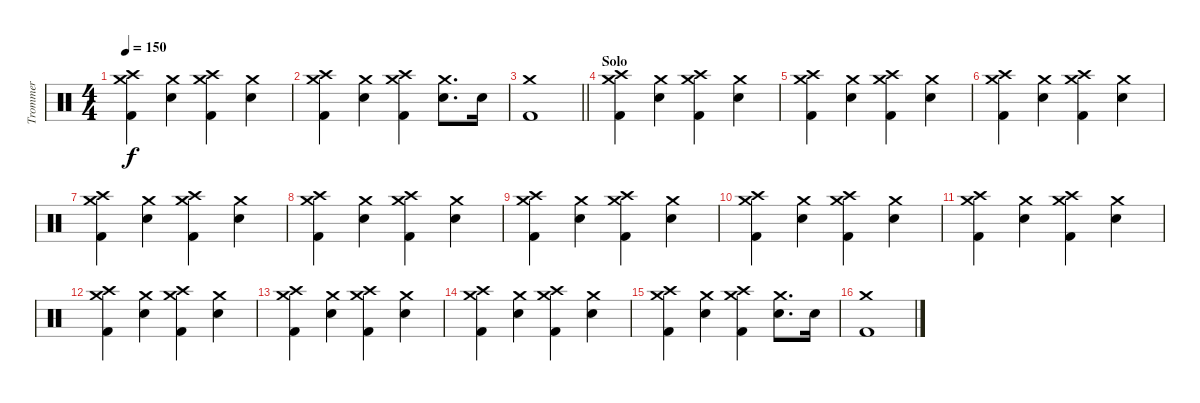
\track ("Trommer" "Trommer") {instrument percussion}
\staff {score}
\articulation defaults
\ts (4 4)
\tempo 150
\clef neutral
\ks c
("Crash medium (hit)" "Crash high (hit)" "Kick (hit) 2").4{dy f} ("Crash medium (hit)" "Snare (hit) 2").4 ("Crash medium (hit)" "Crash high (hit)" "Kick (hit) 2").4 ("Crash medium (hit)" "Snare (hit) 2").4 |
("Crash medium (hit)" "Crash high (hit)" "Kick (hit) 2").4 ("Crash medium (hit)" "Snare (hit) 2").4 ("Crash medium (hit)" "Crash high (hit)" "Kick (hit) 2").4 ("Crash medium (hit)" "Snare (hit) 2").8{d} "Snare (hit) 2".16 |
\barLineRight lightlight
("Crash medium (hit)" "Kick (hit) 2").1 |
\section ("" "Solo")
("Crash medium (hit)" "Crash high (hit)" "Kick (hit) 2").4 ("Crash medium (hit)" "Snare (hit) 2").4 ("Crash medium (hit)" "Crash high (hit)" "Kick (hit) 2").4 ("Crash medium (hit)" "Snare (hit) 2").4 |
("Crash medium (hit)" "Crash high (hit)" "Kick (hit) 2").4 ("Crash medium (hit)" "Snare (hit) 2").4 ("Crash medium (hit)" "Crash high (hit)" "Kick (hit) 2").4 ("Crash medium (hit)" "Snare (hit) 2").4 |
("Crash medium (hit)" "Crash high (hit)" "Kick (hit) 2").4 ("Crash medium (hit)" "Snare (hit) 2").4 ("Crash medium (hit)" "Crash high (hit)" "Kick (hit) 2").4 ("Crash medium (hit)" "Snare (hit) 2").4 |
("Crash medium (hit)" "Crash high (hit)" "Kick (hit) 2").4 ("Crash medium (hit)" "Snare (hit) 2").4 ("Crash medium (hit)" "Crash high (hit)" "Kick (hit) 2").4 ("Crash medium (hit)" "Snare (hit) 2").4 |
("Crash medium (hit)" "Crash high (hit)" "Kick (hit) 2").4 ("Crash medium (hit)" "Snare (hit) 2").4 ("Crash medium (hit)" "Crash high (hit)" "Kick (hit) 2").4 ("Crash medium (hit)" "Snare (hit) 2").4 |
("Crash medium (hit)" "Crash high (hit)" "Kick (hit) 2").4 ("Crash medium (hit)" "Snare (hit) 2").4 ("Crash medium (hit)" "Crash high (hit)" "Kick (hit) 2").4 ("Crash medium (hit)" "Snare (hit) 2").4 |
("Crash medium (hit)" "Crash high (hit)" "Kick (hit) 2").4 ("Crash medium (hit)" "Snare (hit) 2").4 ("Crash medium (hit)" "Crash high (hit)" "Kick (hit) 2").4 ("Crash medium (hit)" "Snare (hit) 2").4 |
("Crash medium (hit)" "Crash high (hit)" "Kick (hit) 2").4 ("Crash medium (hit)" "Snare (hit) 2").4 ("Crash medium (hit)" "Crash high (hit)" "Kick (hit) 2").4 ("Crash medium (hit)" "Snare (hit) 2").4 |
("Crash medium (hit)" "Crash high (hit)" "Kick (hit) 2").4 ("Crash medium (hit)" "Snare (hit) 2").4 ("Crash medium (hit)" "Crash high (hit)" "Kick (hit) 2").4 ("Crash medium (hit)" "Snare (hit) 2").4 |
("Crash medium (hit)" "Crash high (hit)" "Kick (hit) 2").4 ("Crash medium (hit)" "Snare (hit) 2").4 ("Crash medium (hit)" "Crash high (hit)" "Kick (hit) 2").4 ("Crash medium (hit)" "Snare (hit) 2").4 |
("Crash medium (hit)" "Crash high (hit)" "Kick (hit) 2").4 ("Crash medium (hit)" "Snare (hit) 2").4 ("Crash medium (hit)" "Crash high (hit)" "Kick (hit) 2").4 ("Crash medium (hit)" "Snare (hit) 2").4 |
("Crash medium (hit)" "Crash high (hit)" "Kick (hit) 2").4 ("Crash medium (hit)" "Snare (hit) 2").4 ("Crash medium (hit)" "Crash high (hit)" "Kick (hit) 2").4 ("Crash medium (hit)" "Snare (hit) 2").8{d} "Snare (hit) 2".16 |
("Crash medium (hit)" "Kick (hit) 2").1
